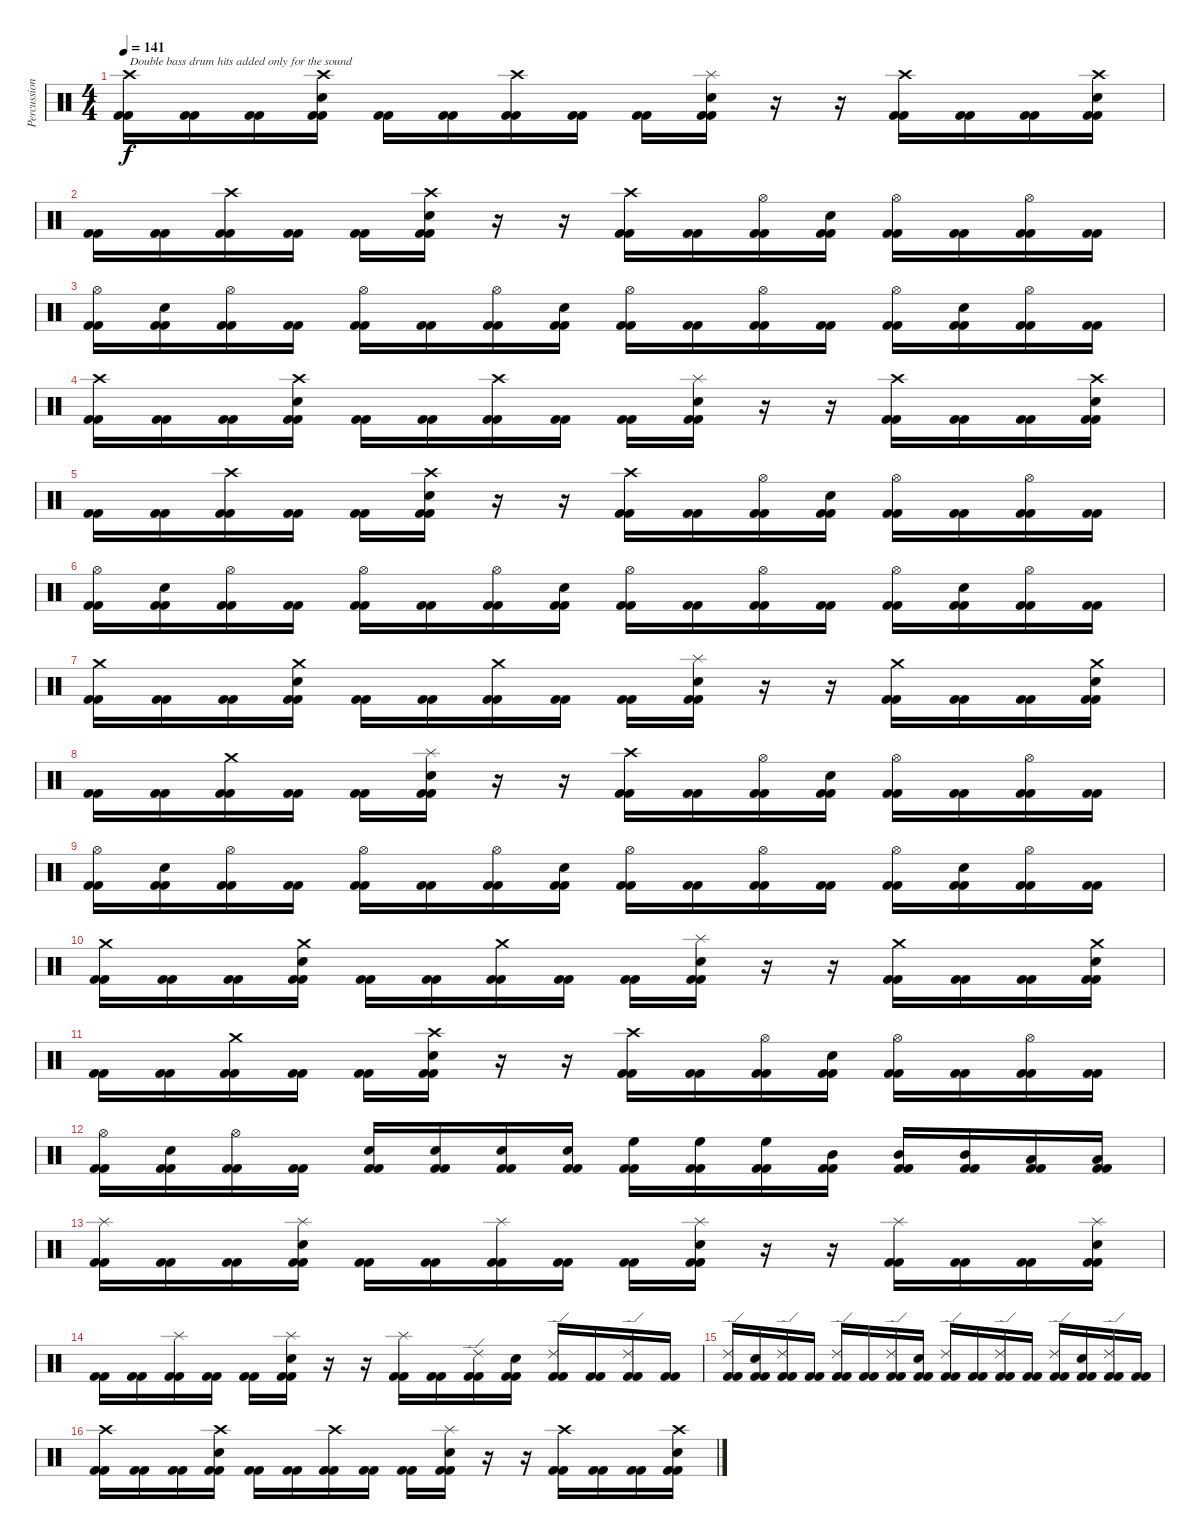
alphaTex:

\track ("Percussions" "Percussion") {instrument percussion}
\staff {score}
\articulation defaults
\ts (4 4)
\tempo 141
\clef neutral
\ks c
("Crash high (hit)" "Kick (hit) 2" "Kick (hit) 2").16{txt "Double bass drum hits added only for the sound" dy f} ("Kick (hit) 2" "Kick (hit) 2").16 ("Kick (hit) 2" "Kick (hit) 2").16 ("Crash high (hit)" "Snare (hit) 2" "Kick (hit) 2" "Kick (hit) 2").16 ("Kick (hit) 2" "Kick (hit) 2").16 ("Kick (hit) 2" "Kick (hit) 2").16 ("Crash high (hit)" "Kick (hit) 2" "Kick (hit) 2").16 ("Kick (hit) 2" "Kick (hit) 2").16 ("Kick (hit) 2" "Kick (hit) 2").16 ("Splash (hit)" "Snare (hit) 2" "Kick (hit) 2" "Kick (hit) 2").16 r.16 r.16 ("Crash high (hit)" "Kick (hit) 2" "Kick (hit) 2").16 ("Kick (hit) 2" "Kick (hit) 2").16 ("Kick (hit) 2" "Kick (hit) 2").16 ("Crash high (hit)" "Snare (hit) 2" "Kick (hit) 2" "Kick (hit) 2").16 |
("Kick (hit) 2" "Kick (hit) 2").16 ("Kick (hit) 2" "Kick (hit) 2").16 ("Crash high (hit)" "Kick (hit) 2" "Kick (hit) 2").16 ("Kick (hit) 2" "Kick (hit) 2").16 ("Kick (hit) 2" "Kick (hit) 2").16 ("Crash high (hit)" "Snare (hit) 2" "Kick (hit) 2" "Kick (hit) 2").16 r.16 r.16 ("Crash high (hit)" "Kick (hit) 2" "Kick (hit) 2").16 ("Kick (hit) 2" "Kick (hit) 2").16 ("Hi-Hat (open)" "Kick (hit) 2" "Kick (hit) 2").16 ("Snare (hit) 2" "Kick (hit) 2" "Kick (hit) 2").16 ("Hi-Hat (open)" "Kick (hit) 2" "Kick (hit) 2").16 ("Kick (hit) 2" "Kick (hit) 2").16 ("Hi-Hat (open)" "Kick (hit) 2" "Kick (hit) 2").16 ("Kick (hit) 2" "Kick (hit) 2").16 |
("Hi-Hat (open)" "Kick (hit) 2" "Kick (hit) 2").16 ("Snare (hit) 2" "Kick (hit) 2" "Kick (hit) 2").16 ("Hi-Hat (open)" "Kick (hit) 2" "Kick (hit) 2").16 ("Kick (hit) 2" "Kick (hit) 2").16 ("Hi-Hat (open)" "Kick (hit) 2" "Kick (hit) 2").16 ("Kick (hit) 2" "Kick (hit) 2").16 ("Hi-Hat (open)" "Kick (hit) 2" "Kick (hit) 2").16 ("Snare (hit) 2" "Kick (hit) 2" "Kick (hit) 2").16 ("Hi-Hat (open)" "Kick (hit) 2" "Kick (hit) 2").16 ("Kick (hit) 2" "Kick (hit) 2").16 ("Hi-Hat (open)" "Kick (hit) 2" "Kick (hit) 2").16 ("Kick (hit) 2" "Kick (hit) 2").16 ("Hi-Hat (open)" "Kick (hit) 2" "Kick (hit) 2").16 ("Snare (hit) 2" "Kick (hit) 2" "Kick (hit) 2").16 ("Hi-Hat (open)" "Kick (hit) 2" "Kick (hit) 2").16 ("Kick (hit) 2" "Kick (hit) 2").16 |
("Crash high (hit)" "Kick (hit) 2" "Kick (hit) 2").16 ("Kick (hit) 2" "Kick (hit) 2").16 ("Kick (hit) 2" "Kick (hit) 2").16 ("Crash high (hit)" "Snare (hit) 2" "Kick (hit) 2" "Kick (hit) 2").16 ("Kick (hit) 2" "Kick (hit) 2").16 ("Kick (hit) 2" "Kick (hit) 2").16 ("Crash high (hit)" "Kick (hit) 2" "Kick (hit) 2").16 ("Kick (hit) 2" "Kick (hit) 2").16 ("Kick (hit) 2" "Kick (hit) 2").16 ("Splash (hit)" "Snare (hit) 2" "Kick (hit) 2" "Kick (hit) 2").16 r.16 r.16 ("Crash high (hit)" "Kick (hit) 2" "Kick (hit) 2").16 ("Kick (hit) 2" "Kick (hit) 2").16 ("Kick (hit) 2" "Kick (hit) 2").16 ("Crash high (hit)" "Snare (hit) 2" "Kick (hit) 2" "Kick (hit) 2").16 |
("Kick (hit) 2" "Kick (hit) 2").16 ("Kick (hit) 2" "Kick (hit) 2").16 ("Crash high (hit)" "Kick (hit) 2" "Kick (hit) 2").16 ("Kick (hit) 2" "Kick (hit) 2").16 ("Kick (hit) 2" "Kick (hit) 2").16 ("Crash high (hit)" "Snare (hit) 2" "Kick (hit) 2" "Kick (hit) 2").16 r.16 r.16 ("Crash high (hit)" "Kick (hit) 2" "Kick (hit) 2").16 ("Kick (hit) 2" "Kick (hit) 2").16 ("Hi-Hat (open)" "Kick (hit) 2" "Kick (hit) 2").16 ("Snare (hit) 2" "Kick (hit) 2" "Kick (hit) 2").16 ("Hi-Hat (open)" "Kick (hit) 2" "Kick (hit) 2").16 ("Kick (hit) 2" "Kick (hit) 2").16 ("Hi-Hat (open)" "Kick (hit) 2" "Kick (hit) 2").16 ("Kick (hit) 2" "Kick (hit) 2").16 |
("Hi-Hat (open)" "Kick (hit) 2" "Kick (hit) 2").16 ("Snare (hit) 2" "Kick (hit) 2" "Kick (hit) 2").16 ("Hi-Hat (open)" "Kick (hit) 2" "Kick (hit) 2").16 ("Kick (hit) 2" "Kick (hit) 2").16 ("Hi-Hat (open)" "Kick (hit) 2" "Kick (hit) 2").16 ("Kick (hit) 2" "Kick (hit) 2").16 ("Hi-Hat (open)" "Kick (hit) 2" "Kick (hit) 2").16 ("Snare (hit) 2" "Kick (hit) 2" "Kick (hit) 2").16 ("Hi-Hat (open)" "Kick (hit) 2" "Kick (hit) 2").16 ("Kick (hit) 2" "Kick (hit) 2").16 ("Hi-Hat (open)" "Kick (hit) 2" "Kick (hit) 2").16 ("Kick (hit) 2" "Kick (hit) 2").16 ("Hi-Hat (open)" "Kick (hit) 2" "Kick (hit) 2").16 ("Snare (hit) 2" "Kick (hit) 2" "Kick (hit) 2").16 ("Hi-Hat (open)" "Kick (hit) 2" "Kick (hit) 2").16 ("Kick (hit) 2" "Kick (hit) 2").16 |
("Crash medium (hit)" "Kick (hit) 2" "Kick (hit) 2").16 ("Kick (hit) 2" "Kick (hit) 2").16 ("Kick (hit) 2" "Kick (hit) 2").16 ("Crash medium (hit)" "Snare (hit) 2" "Kick (hit) 2" "Kick (hit) 2").16 ("Kick (hit) 2" "Kick (hit) 2").16 ("Kick (hit) 2" "Kick (hit) 2").16 ("Crash medium (hit)" "Kick (hit) 2" "Kick (hit) 2").16 ("Kick (hit) 2" "Kick (hit) 2").16 ("Kick (hit) 2" "Kick (hit) 2").16 ("Splash (hit)" "Snare (hit) 2" "Kick (hit) 2" "Kick (hit) 2").16 r.16 r.16 ("Crash medium (hit)" "Kick (hit) 2" "Kick (hit) 2").16 ("Kick (hit) 2" "Kick (hit) 2").16 ("Kick (hit) 2" "Kick (hit) 2").16 ("Crash medium (hit)" "Snare (hit) 2" "Kick (hit) 2" "Kick (hit) 2").16 |
("Kick (hit) 2" "Kick (hit) 2").16 ("Kick (hit) 2" "Kick (hit) 2").16 ("Crash medium (hit)" "Kick (hit) 2" "Kick (hit) 2").16 ("Kick (hit) 2" "Kick (hit) 2").16 ("Kick (hit) 2" "Kick (hit) 2").16 ("Splash (hit)" "Snare (hit) 2" "Kick (hit) 2" "Kick (hit) 2").16 r.16 r.16 ("Crash high (hit)" "Kick (hit) 2" "Kick (hit) 2").16 ("Kick (hit) 2" "Kick (hit) 2").16 ("Hi-Hat (open)" "Kick (hit) 2" "Kick (hit) 2").16 ("Snare (hit) 2" "Kick (hit) 2" "Kick (hit) 2").16 ("Hi-Hat (open)" "Kick (hit) 2" "Kick (hit) 2").16 ("Kick (hit) 2" "Kick (hit) 2").16 ("Hi-Hat (open)" "Kick (hit) 2" "Kick (hit) 2").16 ("Kick (hit) 2" "Kick (hit) 2").16 |
("Hi-Hat (open)" "Kick (hit) 2" "Kick (hit) 2").16 ("Snare (hit) 2" "Kick (hit) 2" "Kick (hit) 2").16 ("Hi-Hat (open)" "Kick (hit) 2" "Kick (hit) 2").16 ("Kick (hit) 2" "Kick (hit) 2").16 ("Hi-Hat (open)" "Kick (hit) 2" "Kick (hit) 2").16 ("Kick (hit) 2" "Kick (hit) 2").16 ("Hi-Hat (open)" "Kick (hit) 2" "Kick (hit) 2").16 ("Snare (hit) 2" "Kick (hit) 2" "Kick (hit) 2").16 ("Hi-Hat (open)" "Kick (hit) 2" "Kick (hit) 2").16 ("Kick (hit) 2" "Kick (hit) 2").16 ("Hi-Hat (open)" "Kick (hit) 2" "Kick (hit) 2").16 ("Kick (hit) 2" "Kick (hit) 2").16 ("Hi-Hat (open)" "Kick (hit) 2" "Kick (hit) 2").16 ("Snare (hit) 2" "Kick (hit) 2" "Kick (hit) 2").16 ("Hi-Hat (open)" "Kick (hit) 2" "Kick (hit) 2").16 ("Kick (hit) 2" "Kick (hit) 2").16 |
("Crash medium (hit)" "Kick (hit) 2" "Kick (hit) 2").16 ("Kick (hit) 2" "Kick (hit) 2").16 ("Kick (hit) 2" "Kick (hit) 2").16 ("Crash medium (hit)" "Snare (hit) 2" "Kick (hit) 2" "Kick (hit) 2").16 ("Kick (hit) 2" "Kick (hit) 2").16 ("Kick (hit) 2" "Kick (hit) 2").16 ("Crash medium (hit)" "Kick (hit) 2" "Kick (hit) 2").16 ("Kick (hit) 2" "Kick (hit) 2").16 ("Kick (hit) 2" "Kick (hit) 2").16 ("Splash (hit)" "Snare (hit) 2" "Kick (hit) 2" "Kick (hit) 2").16 r.16 r.16 ("Crash medium (hit)" "Kick (hit) 2" "Kick (hit) 2").16 ("Kick (hit) 2" "Kick (hit) 2").16 ("Kick (hit) 2" "Kick (hit) 2").16 ("Crash medium (hit)" "Snare (hit) 2" "Kick (hit) 2" "Kick (hit) 2").16 |
("Kick (hit) 2" "Kick (hit) 2").16 ("Kick (hit) 2" "Kick (hit) 2").16 ("Crash medium (hit)" "Kick (hit) 2" "Kick (hit) 2").16 ("Kick (hit) 2" "Kick (hit) 2").16 ("Kick (hit) 2" "Kick (hit) 2").16 ("Crash high (hit)" "Snare (hit) 2" "Kick (hit) 2" "Kick (hit) 2").16 r.16 r.16 ("Crash high (hit)" "Kick (hit) 2" "Kick (hit) 2").16 ("Kick (hit) 2" "Kick (hit) 2").16 ("Hi-Hat (open)" "Kick (hit) 2" "Kick (hit) 2").16 ("Snare (hit) 2" "Kick (hit) 2" "Kick (hit) 2").16 ("Hi-Hat (open)" "Kick (hit) 2" "Kick (hit) 2").16 ("Kick (hit) 2" "Kick (hit) 2").16 ("Hi-Hat (open)" "Kick (hit) 2" "Kick (hit) 2").16 ("Kick (hit) 2" "Kick (hit) 2").16 |
("Hi-Hat (open)" "Kick (hit) 2" "Kick (hit) 2").16 ("Snare (hit) 2" "Kick (hit) 2" "Kick (hit) 2").16 ("Hi-Hat (open)" "Kick (hit) 2" "Kick (hit) 2").16 ("Kick (hit) 2" "Kick (hit) 2").16 ("Snare (hit) 2" "Kick (hit) 2" "Kick (hit) 2").16 ("Snare (hit) 2" "Kick (hit) 2" "Kick (hit) 2").16 ("Snare (hit) 2" "Kick (hit) 2" "Kick (hit) 2").16 ("Snare (hit) 2" "Kick (hit) 2" "Kick (hit) 2").16 ("High Floor Tom (hit)" "Kick (hit) 2" "Kick (hit) 2").16 ("High Floor Tom (hit)" "Kick (hit) 2" "Kick (hit) 2").16 ("High Floor Tom (hit)" "Kick (hit) 2" "Kick (hit) 2").16 ("Mid Tom (hit)" "Kick (hit) 2" "Kick (hit) 2").16 ("Mid Tom (hit)" "Kick (hit) 2" "Kick (hit) 2").16 ("Mid Tom (hit)" "Kick (hit) 2" "Kick (hit) 2").16 ("Low Tom (hit)" "Kick (hit) 2" "Kick (hit) 2").16 ("Low Tom (hit)" "Kick (hit) 2" "Kick (hit) 2").16 |
("Splash (hit)" "Kick (hit) 2" "Kick (hit) 2").16 ("Kick (hit) 2" "Kick (hit) 2").16 ("Kick (hit) 2" "Kick (hit) 2").16 ("Splash (hit)" "Snare (hit) 2" "Kick (hit) 2" "Kick (hit) 2").16 ("Kick (hit) 2" "Kick (hit) 2").16 ("Kick (hit) 2" "Kick (hit) 2").16 ("Splash (hit)" "Kick (hit) 2" "Kick (hit) 2").16 ("Kick (hit) 2" "Kick (hit) 2").16 ("Kick (hit) 2" "Kick (hit) 2").16 ("Splash (hit)" "Snare (hit) 2" "Kick (hit) 2" "Kick (hit) 2").16 r.16 r.16 ("Splash (hit)" "Kick (hit) 2" "Kick (hit) 2").16 ("Kick (hit) 2" "Kick (hit) 2").16 ("Kick (hit) 2" "Kick (hit) 2").16 ("Splash (hit)" "Snare (hit) 2" "Kick (hit) 2" "Kick (hit) 2").16 |
("Kick (hit) 2" "Kick (hit) 2").16 ("Kick (hit) 2" "Kick (hit) 2").16 ("Splash (hit)" "Kick (hit) 2" "Kick (hit) 2").16 ("Kick (hit) 2" "Kick (hit) 2").16 ("Kick (hit) 2" "Kick (hit) 2").16 ("Splash (hit)" "Snare (hit) 2" "Kick (hit) 2" "Kick (hit) 2").16 r.16 r.16 ("Splash (hit)" "Kick (hit) 2" "Kick (hit) 2").16 ("Kick (hit) 2" "Kick (hit) 2").16 ("Ride (edge) 2" "Kick (hit) 2" "Kick (hit) 2").16 ("Snare (hit) 2" "Kick (hit) 2" "Kick (hit) 2").16 ("Ride (edge) 2" "Kick (hit) 2" "Kick (hit) 2").16 ("Kick (hit) 2" "Kick (hit) 2").16 ("Ride (edge) 2" "Kick (hit) 2" "Kick (hit) 2").16 ("Kick (hit) 2" "Kick (hit) 2").16 |
("Ride (edge) 2" "Kick (hit) 2" "Kick (hit) 2").16 ("Snare (hit) 2" "Kick (hit) 2" "Kick (hit) 2").16 ("Ride (edge) 2" "Kick (hit) 2" "Kick (hit) 2").16 ("Kick (hit) 2" "Kick (hit) 2").16 ("Ride (edge) 2" "Kick (hit) 2" "Kick (hit) 2").16 ("Kick (hit) 2" "Kick (hit) 2").16 ("Ride (edge) 2" "Kick (hit) 2" "Kick (hit) 2").16 ("Snare (hit) 2" "Kick (hit) 2" "Kick (hit) 2").16 ("Ride (edge) 2" "Kick (hit) 2" "Kick (hit) 2").16 ("Kick (hit) 2" "Kick (hit) 2").16 ("Ride (edge) 2" "Kick (hit) 2" "Kick (hit) 2").16 ("Kick (hit) 2" "Kick (hit) 2").16 ("Ride (edge) 2" "Kick (hit) 2" "Kick (hit) 2").16 ("Snare (hit) 2" "Kick (hit) 2" "Kick (hit) 2").16 ("Ride (edge) 2" "Kick (hit) 2" "Kick (hit) 2").16 ("Kick (hit) 2" "Kick (hit) 2").16 |
("Crash high (hit)" "Kick (hit) 2" "Kick (hit) 2").16 ("Kick (hit) 2" "Kick (hit) 2").16 ("Kick (hit) 2" "Kick (hit) 2").16 ("Crash high (hit)" "Snare (hit) 2" "Kick (hit) 2" "Kick (hit) 2").16 ("Kick (hit) 2" "Kick (hit) 2").16 ("Kick (hit) 2" "Kick (hit) 2").16 ("Crash high (hit)" "Kick (hit) 2" "Kick (hit) 2").16 ("Kick (hit) 2" "Kick (hit) 2").16 ("Kick (hit) 2" "Kick (hit) 2").16 ("Splash (hit)" "Snare (hit) 2" "Kick (hit) 2" "Kick (hit) 2").16 r.16 r.16 ("Crash high (hit)" "Kick (hit) 2" "Kick (hit) 2").16 ("Kick (hit) 2" "Kick (hit) 2").16 ("Kick (hit) 2" "Kick (hit) 2").16 ("Crash high (hit)" "Snare (hit) 2" "Kick (hit) 2" "Kick (hit) 2").16
